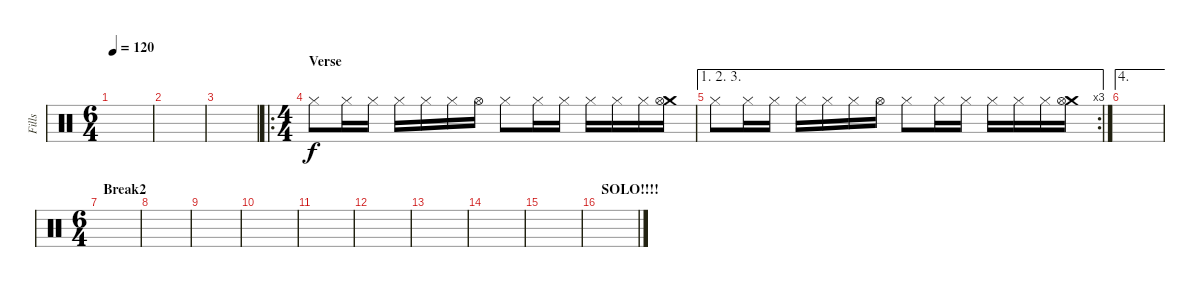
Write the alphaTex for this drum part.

\track ("Fills" "Fills") {instrument percussion}
\staff {score}
\articulation defaults
\ts (6 4)
\tempo 120
\clef neutral
\ks c
|
|
|
\ro
\ts (4 4)
\section ("" "Verse")
"Hi-Hat (closed)".8 "Hi-Hat (closed)".16 "Hi-Hat (closed)".16 "Hi-Hat (closed)".16 "Hi-Hat (closed)".16 "Hi-Hat (closed)".16 "Hi-Hat (open)".16 "Hi-Hat (closed)".8 "Hi-Hat (closed)".16 "Hi-Hat (closed)".16 "Hi-Hat (closed)".16 "Hi-Hat (closed)".16 "Hi-Hat (closed)".16 ("Crash medium (hit)" "Hi-Hat (open)").16 |
\ae (1 2 3)
\rc 3 "Hi-Hat (closed)".8 "Hi-Hat (closed)".16 "Hi-Hat (closed)".16 "Hi-Hat (closed)".16 "Hi-Hat (closed)".16 "Hi-Hat (closed)".16 "Hi-Hat (open)".16 "Hi-Hat (closed)".8 "Hi-Hat (closed)".16 "Hi-Hat (closed)".16 "Hi-Hat (closed)".16 "Hi-Hat (closed)".16 "Hi-Hat (closed)".16
("Crash medium (hit)" "Hi-Hat (open)").16 |
\ae 4
|
\ts (6 4)
\section ("" "Break2")
|
|
|
|
|
|
|
|
|
\section ("" "SOLO!!!!")
